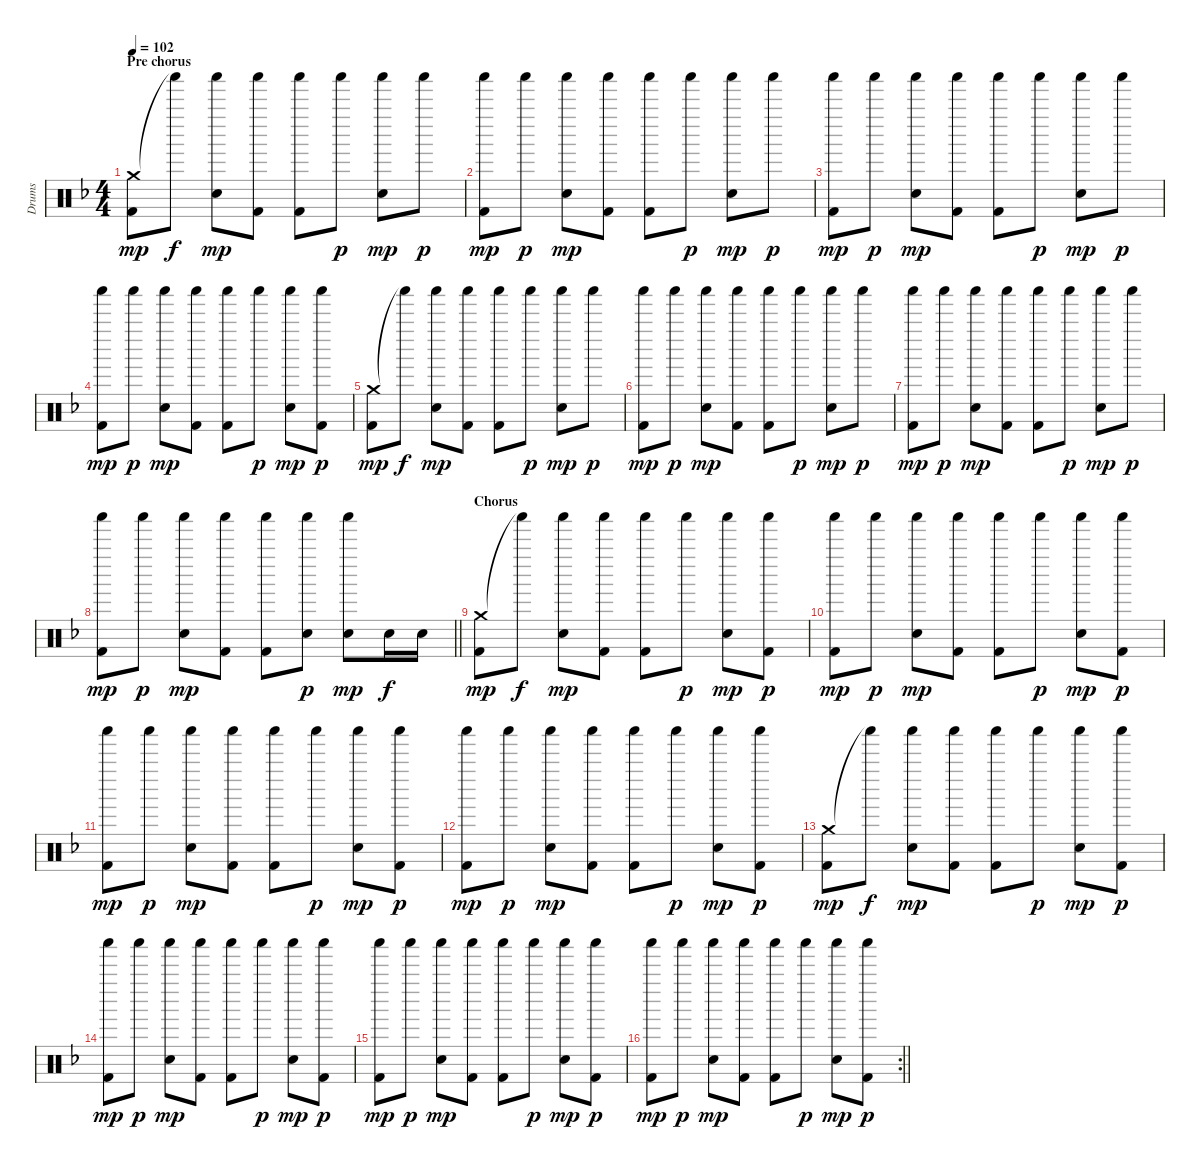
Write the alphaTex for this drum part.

\track ("Drums" "Drums") {instrument percussion}
\staff {score}
\articulation defaults
\ts (4 4)
\section ("" "Pre chorus")
\tempo 102
\clef neutral
\ks dminor
("Crash medium (hit)" "Kick (hit) 2").8{dy mp} "Shaker (hit)"{t}.8{dy f} ("Shaker (hit)" "Snare (hit) 2").8{dy mp} ("Shaker (hit)" "Kick (hit) 2").8 ("Shaker (hit)" "Kick (hit) 2").8 "Shaker (hit)".8{dy p} ("Shaker (hit)" "Snare (hit) 2").8{dy mp} "Shaker (hit)".8{dy p} |
("Shaker (hit)" "Kick (hit) 2").8{dy mp} "Shaker (hit)".8{dy p} ("Shaker (hit)" "Snare (hit) 2").8{dy mp} ("Shaker (hit)" "Kick (hit) 2").8 ("Shaker (hit)" "Kick (hit) 2").8 "Shaker (hit)".8{dy p} ("Shaker (hit)" "Snare (hit) 2").8{dy mp} "Shaker (hit)".8{dy p} |
("Shaker (hit)" "Kick (hit) 2").8{dy mp} "Shaker (hit)".8{dy p} ("Shaker (hit)" "Snare (hit) 2").8{dy mp} ("Shaker (hit)" "Kick (hit) 2").8 ("Shaker (hit)" "Kick (hit) 2").8 "Shaker (hit)".8{dy p} ("Shaker (hit)" "Snare (hit) 2").8{dy mp} "Shaker (hit)".8{dy p} |
("Shaker (hit)" "Kick (hit) 2").8{dy mp} "Shaker (hit)".8{dy p} ("Shaker (hit)" "Snare (hit) 2").8{dy mp} ("Shaker (hit)" "Kick (hit) 2").8 ("Shaker (hit)" "Kick (hit) 2").8 "Shaker (hit)".8{dy p} ("Shaker (hit)" "Snare (hit) 2").8{dy mp} ("Shaker (hit)" "Kick (hit) 2").8{dy p} |
("Crash medium (hit)" "Kick (hit) 2").8{dy mp} "Shaker (hit)"{t}.8{dy f} ("Shaker (hit)" "Snare (hit) 2").8{dy mp} ("Shaker (hit)" "Kick (hit) 2").8 ("Shaker (hit)" "Kick (hit) 2").8 "Shaker (hit)".8{dy p} ("Shaker (hit)" "Snare (hit) 2").8{dy mp} "Shaker (hit)".8{dy p} |
("Shaker (hit)" "Kick (hit) 2").8{dy mp} "Shaker (hit)".8{dy p} ("Shaker (hit)" "Snare (hit) 2").8{dy mp} ("Shaker (hit)" "Kick (hit) 2").8 ("Shaker (hit)" "Kick (hit) 2").8 "Shaker (hit)".8{dy p} ("Shaker (hit)" "Snare (hit) 2").8{dy mp} "Shaker (hit)".8{dy p} |
("Shaker (hit)" "Kick (hit) 2").8{dy mp} "Shaker (hit)".8{dy p} ("Shaker (hit)" "Snare (hit) 2").8{dy mp} ("Shaker (hit)" "Kick (hit) 2").8 ("Shaker (hit)" "Kick (hit) 2").8 "Shaker (hit)".8{dy p} ("Shaker (hit)" "Snare (hit) 2").8{dy mp} "Shaker (hit)".8{dy p} |
\barLineRight lightlight
("Shaker (hit)" "Kick (hit) 2").8{dy mp} "Shaker (hit)".8{dy p} ("Shaker (hit)" "Snare (hit) 2").8{dy mp} ("Shaker (hit)" "Kick (hit) 2").8 ("Shaker (hit)" "Kick (hit) 2").8 ("Shaker (hit)" "Snare (hit) 2").8{dy p} ("Shaker (hit)" "Snare (hit) 2").8{dy mp} "Snare (hit) 2".16{dy f} "Snare (hit) 2".16 |
\section ("" "Chorus")
("Crash medium (hit)" "Kick (hit) 2").8{dy mp} "Shaker (hit)"{t}.8{dy f} ("Shaker (hit)" "Snare (hit) 2").8{dy mp} ("Shaker (hit)" "Kick (hit) 2").8 ("Shaker (hit)" "Kick (hit) 2").8 "Shaker (hit)".8{dy p} ("Shaker (hit)" "Snare (hit) 2").8{dy mp} ("Shaker (hit)" "Kick (hit) 2").8{dy p} |
("Shaker (hit)" "Kick (hit) 2").8{dy mp} "Shaker (hit)".8{dy p} ("Shaker (hit)" "Snare (hit) 2").8{dy mp} ("Shaker (hit)" "Kick (hit) 2").8 ("Shaker (hit)" "Kick (hit) 2").8 "Shaker (hit)".8{dy p} ("Shaker (hit)" "Snare (hit) 2").8{dy mp} ("Shaker (hit)" "Kick (hit) 2").8{dy p} |
("Shaker (hit)" "Kick (hit) 2").8{dy mp} "Shaker (hit)".8{dy p} ("Shaker (hit)" "Snare (hit) 2").8{dy mp} ("Shaker (hit)" "Kick (hit) 2").8 ("Shaker (hit)" "Kick (hit) 2").8 "Shaker (hit)".8{dy p} ("Shaker (hit)" "Snare (hit) 2").8{dy mp} ("Shaker (hit)" "Kick (hit) 2").8{dy p} |
("Shaker (hit)" "Kick (hit) 2").8{dy mp} "Shaker (hit)".8{dy p} ("Shaker (hit)" "Snare (hit) 2").8{dy mp} ("Shaker (hit)" "Kick (hit) 2").8 ("Shaker (hit)" "Kick (hit) 2").8 "Shaker (hit)".8{dy p} ("Shaker (hit)" "Snare (hit) 2").8{dy mp} ("Shaker (hit)" "Kick (hit) 2").8{dy p} |
("Crash medium (hit)" "Kick (hit) 2").8{dy mp} "Shaker (hit)"{t}.8{dy f} ("Shaker (hit)" "Snare (hit) 2").8{dy mp} ("Shaker (hit)" "Kick (hit) 2").8 ("Shaker (hit)" "Kick (hit) 2").8 "Shaker (hit)".8{dy p} ("Shaker (hit)" "Snare (hit) 2").8{dy mp} ("Shaker (hit)" "Kick (hit) 2").8{dy p} |
("Shaker (hit)" "Kick (hit) 2").8{dy mp} "Shaker (hit)".8{dy p} ("Shaker (hit)" "Snare (hit) 2").8{dy mp} ("Shaker (hit)" "Kick (hit) 2").8 ("Shaker (hit)" "Kick (hit) 2").8 "Shaker (hit)".8{dy p} ("Shaker (hit)" "Snare (hit) 2").8{dy mp} ("Shaker (hit)" "Kick (hit) 2").8{dy p} |
("Shaker (hit)" "Kick (hit) 2").8{dy mp} "Shaker (hit)".8{dy p} ("Shaker (hit)" "Snare (hit) 2").8{dy mp} ("Shaker (hit)" "Kick (hit) 2").8 ("Shaker (hit)" "Kick (hit) 2").8 "Shaker (hit)".8{dy p} ("Shaker (hit)" "Snare (hit) 2").8{dy mp} ("Shaker (hit)" "Kick (hit) 2").8{dy p} |
\rc 2
\barLineRight lightlight
("Shaker (hit)" "Kick (hit) 2").8{dy mp} "Shaker (hit)".8{dy p} ("Shaker (hit)" "Snare (hit) 2").8{dy mp} ("Shaker (hit)" "Kick (hit) 2").8 ("Shaker (hit)" "Kick (hit) 2").8 "Shaker (hit)".8{dy p} ("Shaker (hit)" "Snare (hit) 2").8{dy mp} ("Shaker (hit)" "Kick (hit) 2").8{dy p}
